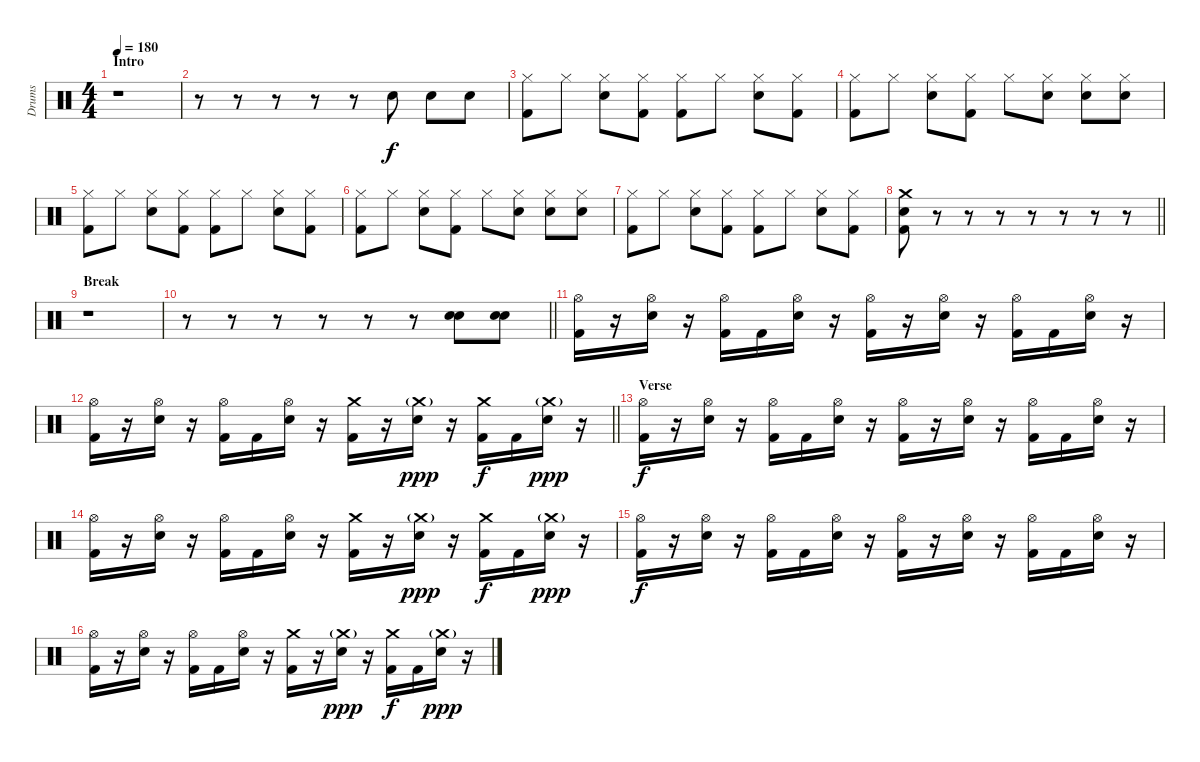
\track ("Drums" "Drums") {instrument percussion}
\staff {score}
\articulation defaults
\ts (4 4)
\section ("" "Intro")
\tempo 180
\clef neutral
\ks c
r.1{dy f} |
r.8 r.8 r.8 r.8 r.8 "Snare (hit) 2".8 "Snare (hit) 2".8 "Snare (hit) 2".8 |
("Hi-Hat (closed)" "Kick (hit) 2").8 "Hi-Hat (closed)".8 ("Hi-Hat (closed)" "Snare (hit) 2").8 ("Hi-Hat (closed)" "Kick (hit) 2").8 ("Hi-Hat (closed)" "Kick (hit) 2").8 "Hi-Hat (closed)".8 ("Hi-Hat (closed)" "Snare (hit) 2").8 ("Hi-Hat (closed)" "Kick (hit) 2").8 |
("Hi-Hat (closed)" "Kick (hit) 2").8 "Hi-Hat (closed)".8 ("Hi-Hat (closed)" "Snare (hit) 2").8 ("Hi-Hat (closed)" "Kick (hit) 2").8 "Hi-Hat (closed)".8 ("Hi-Hat (closed)" "Snare (hit) 2").8 ("Hi-Hat (closed)" "Snare (hit) 2").8 ("Hi-Hat (closed)" "Snare (hit) 2").8 |
("Hi-Hat (closed)" "Kick (hit) 2").8 "Hi-Hat (closed)".8 ("Hi-Hat (closed)" "Snare (hit) 2").8 ("Hi-Hat (closed)" "Kick (hit) 2").8 ("Hi-Hat (closed)" "Kick (hit) 2").8 "Hi-Hat (closed)".8 ("Hi-Hat (closed)" "Snare (hit) 2").8 ("Hi-Hat (closed)" "Kick (hit) 2").8 |
("Hi-Hat (closed)" "Kick (hit) 2").8 "Hi-Hat (closed)".8 ("Hi-Hat (closed)" "Snare (hit) 2").8 ("Hi-Hat (closed)" "Kick (hit) 2").8 "Hi-Hat (closed)".8 ("Hi-Hat (closed)" "Snare (hit) 2").8 ("Hi-Hat (closed)" "Snare (hit) 2").8 ("Hi-Hat (closed)" "Snare (hit) 2").8 |
("Hi-Hat (closed)" "Kick (hit) 2").8 "Hi-Hat (closed)".8 ("Hi-Hat (closed)" "Snare (hit) 2").8 ("Hi-Hat (closed)" "Kick (hit) 2").8 ("Hi-Hat (closed)" "Kick (hit) 2").8 "Hi-Hat (closed)".8 ("Hi-Hat (closed)" "Snare (hit) 2").8 ("Hi-Hat (closed)" "Kick (hit) 2").8 |
\barLineRight lightlight
("Crash medium (hit)" "Snare (hit) 2" "Kick (hit) 2").8 r.8 r.8 r.8 r.8 r.8 r.8 r.8 |
\section ("" "Break")
r.1 |
\barLineRight lightlight
r.8 r.8 r.8 r.8 r.8 r.8 ("Snare (hit) 2" "Snare (hit) 2").8 ("Snare (hit) 2" "Snare (hit) 2").8 |
\section ("" "")
("Hi-Hat (open)" "Kick (hit) 2").16 r.16 ("Hi-Hat (open)" "Snare (hit) 2").16 r.16 ("Hi-Hat (open)" "Kick (hit) 2").16 "Kick (hit) 2".16 ("Hi-Hat (open)" "Snare (hit) 2").16 r.16 ("Hi-Hat (open)" "Kick (hit) 2").16 r.16 ("Hi-Hat (open)" "Snare (hit) 2").16 r.16 ("Hi-Hat (open)" "Kick (hit) 2").16 "Kick (hit) 2".16 ("Hi-Hat (open)" "Snare (hit) 2").16 r.16 |
\barLineRight lightlight
("Hi-Hat (open)" "Kick (hit) 2").16 r.16 ("Hi-Hat (open)" "Snare (hit) 2").16 r.16 ("Hi-Hat (open)" "Kick (hit) 2").16 "Kick (hit) 2".16 ("Hi-Hat (open)" "Snare (hit) 2").16 r.16 ("Crash medium (hit)" "Kick (hit) 2").16 r.16 ("Crash medium (hit)"{g} "Snare (hit) 2").16{dy ppp} r.16 ("Crash medium (hit)" "Kick (hit) 2").16{dy f} "Kick (hit) 2".16 ("Crash medium (hit)"{g} "Snare (hit) 2").16{dy ppp} r.16 |
\section ("" "Verse")
("Hi-Hat (open)" "Kick (hit) 2").16{dy f} r.16 ("Hi-Hat (open)" "Snare (hit) 2").16 r.16 ("Hi-Hat (open)" "Kick (hit) 2").16 "Kick (hit) 2".16 ("Hi-Hat (open)" "Snare (hit) 2").16 r.16 ("Hi-Hat (open)" "Kick (hit) 2").16 r.16 ("Hi-Hat (open)" "Snare (hit) 2").16 r.16 ("Hi-Hat (open)" "Kick (hit) 2").16 "Kick (hit) 2".16 ("Hi-Hat (open)" "Snare (hit) 2").16 r.16 |
("Hi-Hat (open)" "Kick (hit) 2").16 r.16 ("Hi-Hat (open)" "Snare (hit) 2").16 r.16 ("Hi-Hat (open)" "Kick (hit) 2").16 "Kick (hit) 2".16 ("Hi-Hat (open)" "Snare (hit) 2").16 r.16 ("Crash medium (hit)" "Kick (hit) 2").16 r.16 ("Crash medium (hit)"{g} "Snare (hit) 2").16{dy ppp} r.16 ("Crash medium (hit)" "Kick (hit) 2").16{dy f} "Kick (hit) 2".16 ("Crash medium (hit)"{g} "Snare (hit) 2").16{dy ppp} r.16 |
("Hi-Hat (open)" "Kick (hit) 2").16{dy f} r.16 ("Hi-Hat (open)" "Snare (hit) 2").16 r.16 ("Hi-Hat (open)" "Kick (hit) 2").16 "Kick (hit) 2".16 ("Hi-Hat (open)" "Snare (hit) 2").16 r.16 ("Hi-Hat (open)" "Kick (hit) 2").16 r.16 ("Hi-Hat (open)" "Snare (hit) 2").16 r.16 ("Hi-Hat (open)" "Kick (hit) 2").16 "Kick (hit) 2".16 ("Hi-Hat (open)" "Snare (hit) 2").16 r.16 |
("Hi-Hat (open)" "Kick (hit) 2").16 r.16 ("Hi-Hat (open)" "Snare (hit) 2").16 r.16 ("Hi-Hat (open)" "Kick (hit) 2").16 "Kick (hit) 2".16 ("Hi-Hat (open)" "Snare (hit) 2").16 r.16 ("Crash medium (hit)" "Kick (hit) 2").16 r.16 ("Crash medium (hit)"{g} "Snare (hit) 2").16{dy ppp} r.16 ("Crash medium (hit)" "Kick (hit) 2").16{dy f} "Kick (hit) 2".16 ("Crash medium (hit)"{g} "Snare (hit) 2").16{dy ppp} r.16
